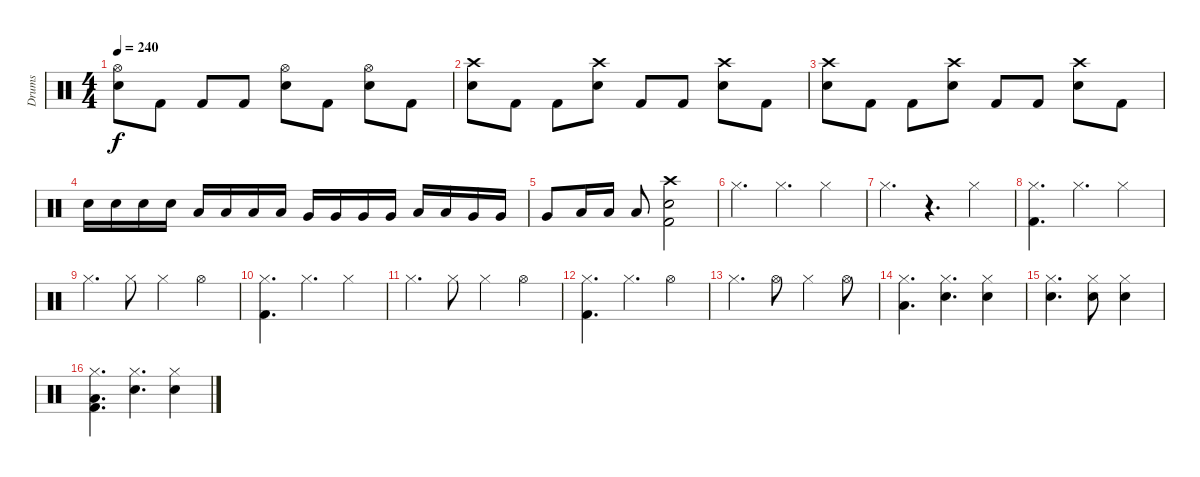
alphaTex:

\track ("Drums" "Drums") {instrument percussion}
\staff {score}
\articulation defaults
\ts (4 4)
\tempo 240
\clef neutral
\ks c
("Hi-Hat (open)" "Electric Snare (hit)").8{dy f} "Kick (hit) 2".8 "Kick (hit) 2".8 "Kick (hit) 2".8 ("Hi-Hat (open)" "Electric Snare (hit)").8 "Kick (hit) 2".8 ("Hi-Hat (open)" "Electric Snare (hit)").8 "Kick (hit) 2".8 |
("Crash high (hit)" "Electric Snare (hit)").8 "Kick (hit) 2".8 "Kick (hit) 2".8 ("Crash high (hit)" "Electric Snare (hit)").8 "Kick (hit) 2".8 "Kick (hit) 2".8 ("Crash high (hit)" "Electric Snare (hit)").8 "Kick (hit) 2".8 |
("Crash high (hit)" "Electric Snare (hit)").8 "Kick (hit) 2".8 "Kick (hit) 2".8 ("Crash high (hit)" "Electric Snare (hit)").8 "Kick (hit) 2".8 "Kick (hit) 2".8 ("Crash high (hit)" "Electric Snare (hit)").8 "Kick (hit) 2".8 |
"Electric Snare (hit)".16 "Electric Snare (hit)".16 "Electric Snare (hit)".16 "Electric Snare (hit)".16 "Low Tom (hit)".16 "Low Tom (hit)".16 "Low Tom (hit)".16 "Low Tom (hit)".16 "Very Low Tom (hit)".16 "Very Low Tom (hit)".16 "Very Low Tom (hit)".16 "Very Low Tom (hit)".16 "Low Floor Tom (hit)".16 "Low Floor Tom (hit)".16 "Very Low Tom (hit)".16 "Very Low Tom (hit)".16 |
"Very Low Tom (hit)".8 "Low Floor Tom (hit)".16 "Low Floor Tom (hit)".16 "Low Floor Tom (hit)".8 ("Crash high (hit)" "Electric Snare (hit)" "Kick (hit) 2").2 |
"Hi-Hat (closed)".4{d} "Hi-Hat (closed)".4{d} "Hi-Hat (closed)".4 |
"Hi-Hat (closed)".4{d} r.4{d} "Hi-Hat (closed)".4 |
("Hi-Hat (closed)" "Kick (hit) 2").4{d} "Hi-Hat (closed)".4{d} "Hi-Hat (closed)".4 |
"Hi-Hat (closed)".4{d} "Hi-Hat (closed)".8 "Hi-Hat (closed)".4 "Hi-Hat (open)".4 |
("Hi-Hat (closed)" "Kick (hit) 2").4{d} "Hi-Hat (closed)".4{d} "Hi-Hat (closed)".4 |
"Hi-Hat (closed)".4{d} "Hi-Hat (closed)".8 "Hi-Hat (closed)".4 "Hi-Hat (open)".4 |
("Hi-Hat (closed)" "Kick (hit) 2").4{d} "Hi-Hat (closed)".4{d} "Hi-Hat (open)".4 |
"Hi-Hat (closed)".4{d} "Hi-Hat (open)".8 "Hi-Hat (closed)".4 "Hi-Hat (open)".8 |
("Low Tom (hit)" "Hi-Hat (closed)").4{d} ("Hi-Hat (closed)" "Electric Snare (hit)").4{d} ("Hi-Hat (closed)" "Electric Snare (hit)").4 |
("Hi-Hat (closed)" "Electric Snare (hit)").4{d} ("Hi-Hat (closed)" "Electric Snare (hit)").8 ("Hi-Hat (closed)" "Electric Snare (hit)").4 |
("Low Tom (hit)" "Hi-Hat (closed)" "Kick (hit) 2").4{d} ("Hi-Hat (closed)" "Electric Snare (hit)").4{d} ("Hi-Hat (closed)" "Electric Snare (hit)").4
